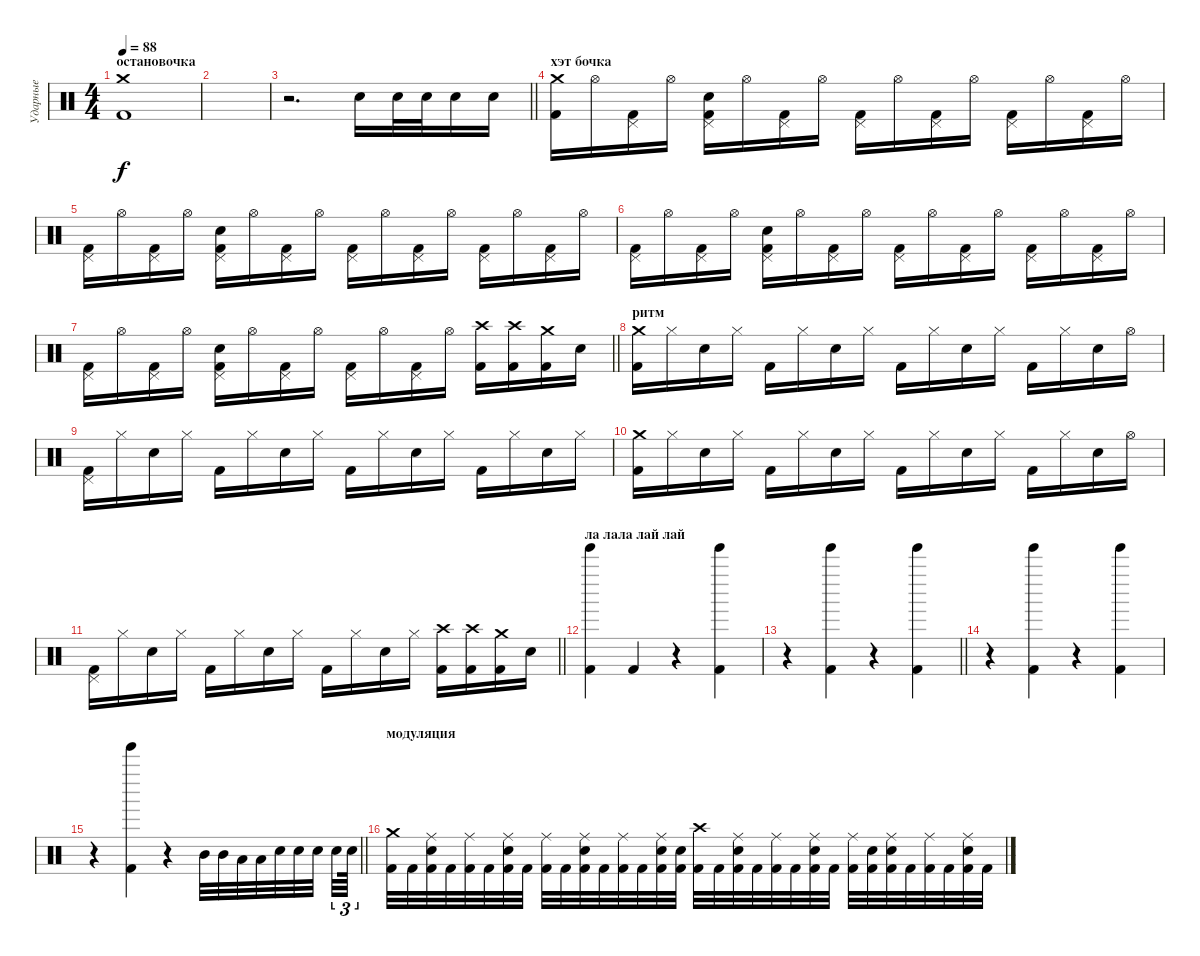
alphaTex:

\track ("Ударные" "Ударные") {instrument percussion}
\staff {score}
\articulation defaults
\ts (4 4)
\section ("" "остановочка")
\tempo 88
\clef neutral
\ks c
("Kick (hit) 2" "Crash medium (hit)").1{dy f} |
|
\barLineRight lightlight
r.2{d} "Snare (hit) 2".16 "Snare (hit) 2".32 "Snare (hit) 2".32 "Snare (hit) 2".16 "Snare (hit) 2".16 |
\section ("" "хэт бочка")
("Kick (hit) 2" "Crash medium (hit)").16 "Hi-Hat (open)".16 ("Pedal Hi-Hat (hit)" "Kick (hit) 2").16 "Hi-Hat (open)".16 ("Pedal Hi-Hat (hit)" "Kick (hit) 2" "Snare (hit)").16 "Hi-Hat (open)".16 ("Pedal Hi-Hat (hit)" "Kick (hit) 2").16 "Hi-Hat (open)".16 ("Pedal Hi-Hat (hit)" "Kick (hit) 2").16 "Hi-Hat (open)".16 ("Pedal Hi-Hat (hit)" "Kick (hit) 2").16 "Hi-Hat (open)".16 ("Pedal Hi-Hat (hit)" "Kick (hit) 2").16 "Hi-Hat (open)".16 ("Pedal Hi-Hat (hit)" "Kick (hit) 2").16 "Hi-Hat (open)".16 |
("Kick (hit) 2" "Pedal Hi-Hat (hit)").16 "Hi-Hat (open)".16 ("Pedal Hi-Hat (hit)" "Kick (hit) 2").16 "Hi-Hat (open)".16 ("Pedal Hi-Hat (hit)" "Kick (hit) 2" "Snare (hit)").16 "Hi-Hat (open)".16 ("Pedal Hi-Hat (hit)" "Kick (hit) 2").16 "Hi-Hat (open)".16 ("Pedal Hi-Hat (hit)" "Kick (hit) 2").16 "Hi-Hat (open)".16 ("Pedal Hi-Hat (hit)" "Kick (hit) 2").16 "Hi-Hat (open)".16 ("Pedal Hi-Hat (hit)" "Kick (hit) 2").16 "Hi-Hat (open)".16 ("Pedal Hi-Hat (hit)" "Kick (hit) 2").16 "Hi-Hat (open)".16 |
("Kick (hit) 2" "Pedal Hi-Hat (hit)").16 "Hi-Hat (open)".16 ("Pedal Hi-Hat (hit)" "Kick (hit) 2").16 "Hi-Hat (open)".16 ("Pedal Hi-Hat (hit)" "Kick (hit) 2" "Snare (hit)").16 "Hi-Hat (open)".16 ("Pedal Hi-Hat (hit)" "Kick (hit) 2").16 "Hi-Hat (open)".16 ("Pedal Hi-Hat (hit)" "Kick (hit) 2").16 "Hi-Hat (open)".16 ("Pedal Hi-Hat (hit)" "Kick (hit) 2").16 "Hi-Hat (open)".16 ("Pedal Hi-Hat (hit)" "Kick (hit) 2").16 "Hi-Hat (open)".16 ("Pedal Hi-Hat (hit)" "Kick (hit) 2").16 "Hi-Hat (open)".16 |
\barLineRight lightlight
("Kick (hit) 2" "Pedal Hi-Hat (hit)").16 "Hi-Hat (open)".16 ("Pedal Hi-Hat (hit)" "Kick (hit) 2").16 "Hi-Hat (open)".16 ("Pedal Hi-Hat (hit)" "Kick (hit) 2" "Snare (hit)").16 "Hi-Hat (open)".16 ("Pedal Hi-Hat (hit)" "Kick (hit) 2").16 "Hi-Hat (open)".16 ("Pedal Hi-Hat (hit)" "Kick (hit) 2").16 "Hi-Hat (open)".16 ("Pedal Hi-Hat (hit)" "Kick (hit) 2").16 "Hi-Hat (open)".16 ("Kick (hit) 2" "Crash high (hit)").16 ("Kick (hit) 2" "Crash high (hit)").16 ("Crash medium (hit)" "Kick (hit) 2").16 "Snare (hit) 2".16 |
\section ("" "ритм")
("Kick (hit) 2" "Crash medium (hit)").16 "Hi-Hat (closed)".16 "Snare (hit) 2".16 "Hi-Hat (closed)".16 "Kick (hit) 2".16 "Hi-Hat (closed)".16 "Snare (hit) 2".16 "Hi-Hat (closed)".16 "Kick (hit) 2".16 "Hi-Hat (closed)".16 "Snare (hit) 2".16 "Hi-Hat (closed)".16 "Kick (hit) 2".16 "Hi-Hat (closed)".16 "Snare (hit) 2".16 "Hi-Hat (open)".16 |
("Pedal Hi-Hat (hit)" "Kick (hit) 2").16 "Hi-Hat (closed)".16 "Snare (hit) 2".16 "Hi-Hat (closed)".16 "Kick (hit) 2".16 "Hi-Hat (closed)".16 "Snare (hit) 2".16 "Hi-Hat (closed)".16 "Kick (hit) 2".16 "Hi-Hat (closed)".16 "Snare (hit) 2".16 "Hi-Hat (closed)".16 "Kick (hit) 2".16 "Hi-Hat (closed)".16 "Snare (hit) 2".16 "Hi-Hat (closed)".16 |
("Kick (hit) 2" "Crash medium (hit)").16 "Hi-Hat (closed)".16 "Snare (hit) 2".16 "Hi-Hat (closed)".16 "Kick (hit) 2".16 "Hi-Hat (closed)".16 "Snare (hit) 2".16 "Hi-Hat (closed)".16 "Kick (hit) 2".16 "Hi-Hat (closed)".16 "Snare (hit) 2".16 "Hi-Hat (closed)".16 "Kick (hit) 2".16 "Hi-Hat (closed)".16 "Snare (hit) 2".16 "Hi-Hat (open)".16 |
\barLineRight lightlight
("Pedal Hi-Hat (hit)" "Kick (hit) 2").16 "Hi-Hat (closed)".16 "Snare (hit) 2".16 "Hi-Hat (closed)".16 "Kick (hit) 2".16 "Hi-Hat (closed)".16 "Snare (hit) 2".16 "Hi-Hat (closed)".16 "Kick (hit) 2".16 "Hi-Hat (closed)".16 "Snare (hit) 2".16 "Hi-Hat (closed)".16 ("Kick (hit) 2" "Crash high (hit)").16 ("Kick (hit) 2" "Crash high (hit)").16 ("Crash medium (hit)" "Kick (hit) 2").16 "Snare (hit) 2".16 |
\section ("" "ла лала лай лай")
("Kick (hit) 2" "Tinkle Bell (hit)").4 "Kick (hit) 2".4 r.4 ("Tinkle Bell (hit)" "Kick (hit) 2").4 |
\barLineRight lightlight
r.4 ("Tinkle Bell (hit)" "Kick (hit) 2").4 r.4 ("Kick (hit) 2" "Tinkle Bell (hit)").4 |
r.4 ("Kick (hit) 2" "Tinkle Bell (hit)").4 r.4 ("Kick (hit) 2" "Tinkle Bell (hit)").4 |
\barLineRight lightlight
r.4 ("Kick (hit) 2" "Tinkle Bell (hit)").4 r.4 "Mid Tom (hit)".32 "Mid Tom (hit)".32 "Low Tom (hit)".32 "Low Tom (hit)".32 "Snare (hit) 2".32 "Snare (hit) 2".32 "Snare (hit) 2".32{beam splitsecondary} "Snare (hit) 2".32{tu (3 2)} "Snare (hit) 2".64{tu (3 2)} |
\section ("" "модуляция")
("Crash medium (hit)" "Kick (hit) 2").32 "Kick (hit) 2".32 ("Ride (middle)" "Snare (hit) 2" "Kick (hit) 2").32 "Kick (hit) 2".32 ("Ride (middle)" "Kick (hit) 2").32 "Kick (hit) 2".32 ("Ride (middle)" "Snare (hit) 2" "Kick (hit) 2").32 "Kick (hit) 2".32 ("Ride (middle)" "Kick (hit) 2").32 "Kick (hit) 2".32 ("Ride (middle)" "Snare (hit) 2" "Kick (hit) 2").32 "Kick (hit) 2".32 ("Ride (middle)" "Kick (hit) 2").32 "Kick (hit) 2".32 ("Ride (middle)" "Snare (hit) 2" "Kick (hit) 2").32 ("Snare (hit)" "Kick (hit) 2").32 ("Crash high (hit)" "Kick (hit) 2").32 "Kick (hit) 2".32 ("Ride (middle)" "Snare (hit) 2" "Kick (hit) 2").32 "Kick (hit) 2".32 ("Ride (middle)" "Kick (hit) 2").32 "Kick (hit) 2".32 ("Ride (middle)" "Snare (hit) 2" "Kick (hit) 2").32 "Kick (hit) 2".32 ("Ride (middle)" "Kick (hit) 2").32 ("Snare (hit)" "Kick (hit) 2").32 ("Ride (middle)" "Snare (hit) 2" "Kick (hit) 2").32 "Kick (hit) 2".32 ("Ride (middle)" "Kick (hit) 2").32 "Kick (hit) 2".32 ("Ride (middle)" "Snare (hit) 2" "Kick (hit) 2").32 "Kick (hit) 2".32
